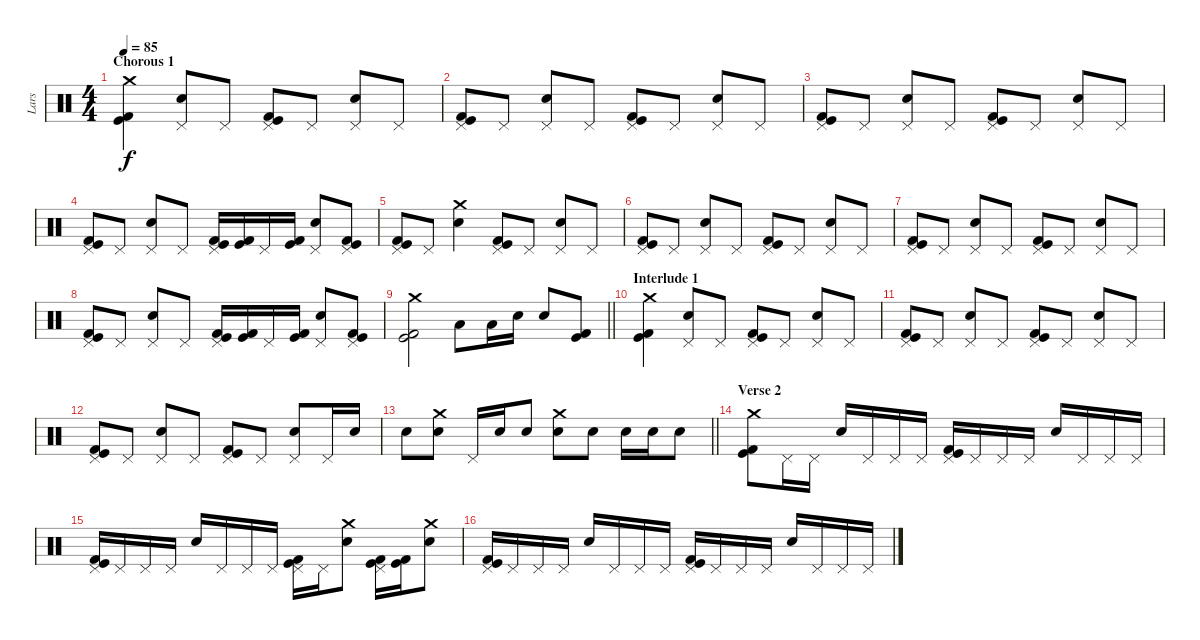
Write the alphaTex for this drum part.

\track ("Lars" "Lars") {instrument percussion}
\staff {score}
\articulation defaults
\ts (4 4)
\section ("" "Chorous 1")
\tempo 85
\clef neutral
\ks c
("Crash medium (hit)" "Kick (hit)" "Kick (hit) 2").4{dy f} ("Pedal Hi-Hat (hit)" "Electric Snare (hit)").8 "Pedal Hi-Hat (hit)".8 ("Pedal Hi-Hat (hit)" "Kick (hit)" "Kick (hit) 2").8 "Pedal Hi-Hat (hit)".8 ("Pedal Hi-Hat (hit)" "Electric Snare (hit)").8 "Pedal Hi-Hat (hit)".8 |
("Pedal Hi-Hat (hit)" "Kick (hit)" "Kick (hit) 2").8 "Pedal Hi-Hat (hit)".8 ("Pedal Hi-Hat (hit)" "Electric Snare (hit)").8 "Pedal Hi-Hat (hit)".8 ("Pedal Hi-Hat (hit)" "Kick (hit)" "Kick (hit) 2").8 "Pedal Hi-Hat (hit)".8 ("Pedal Hi-Hat (hit)" "Electric Snare (hit)").8 "Pedal Hi-Hat (hit)".8 |
("Pedal Hi-Hat (hit)" "Kick (hit)" "Kick (hit) 2").8 "Pedal Hi-Hat (hit)".8 ("Pedal Hi-Hat (hit)" "Electric Snare (hit)").8 "Pedal Hi-Hat (hit)".8 ("Pedal Hi-Hat (hit)" "Kick (hit)" "Kick (hit) 2").8 "Pedal Hi-Hat (hit)".8 ("Pedal Hi-Hat (hit)" "Electric Snare (hit)").8 "Pedal Hi-Hat (hit)".8 |
("Pedal Hi-Hat (hit)" "Kick (hit)" "Kick (hit) 2").8 "Pedal Hi-Hat (hit)".8 ("Pedal Hi-Hat (hit)" "Electric Snare (hit)").8 "Pedal Hi-Hat (hit)".8 ("Pedal Hi-Hat (hit)" "Kick (hit)" "Kick (hit) 2").16 ("Kick (hit)" "Kick (hit) 2").16 "Pedal Hi-Hat (hit)".16 ("Kick (hit)" "Kick (hit) 2").16 ("Pedal Hi-Hat (hit)" "Electric Snare (hit)").8 ("Pedal Hi-Hat (hit)" "Kick (hit)" "Kick (hit) 2").8 |
("Pedal Hi-Hat (hit)" "Kick (hit)" "Kick (hit) 2").8 "Pedal Hi-Hat (hit)".8 ("Crash medium (hit)" "Electric Snare (hit)").4 ("Pedal Hi-Hat (hit)" "Kick (hit)" "Kick (hit) 2").8 "Pedal Hi-Hat (hit)".8 ("Pedal Hi-Hat (hit)" "Electric Snare (hit)").8 "Pedal Hi-Hat (hit)".8 |
("Pedal Hi-Hat (hit)" "Kick (hit)" "Kick (hit) 2").8 "Pedal Hi-Hat (hit)".8 ("Pedal Hi-Hat (hit)" "Electric Snare (hit)").8 "Pedal Hi-Hat (hit)".8 ("Pedal Hi-Hat (hit)" "Kick (hit)" "Kick (hit) 2").8 "Pedal Hi-Hat (hit)".8 ("Pedal Hi-Hat (hit)" "Electric Snare (hit)").8 "Pedal Hi-Hat (hit)".8 |
("Pedal Hi-Hat (hit)" "Kick (hit)" "Kick (hit) 2").8 "Pedal Hi-Hat (hit)".8 ("Pedal Hi-Hat (hit)" "Electric Snare (hit)").8 "Pedal Hi-Hat (hit)".8 ("Pedal Hi-Hat (hit)" "Kick (hit)" "Kick (hit) 2").8 "Pedal Hi-Hat (hit)".8 ("Pedal Hi-Hat (hit)" "Electric Snare (hit)").8 "Pedal Hi-Hat (hit)".8 |
("Pedal Hi-Hat (hit)" "Kick (hit)" "Kick (hit) 2").8 "Pedal Hi-Hat (hit)".8 ("Pedal Hi-Hat (hit)" "Electric Snare (hit)").8 "Pedal Hi-Hat (hit)".8 ("Pedal Hi-Hat (hit)" "Kick (hit)" "Kick (hit) 2").16 ("Kick (hit)" "Kick (hit) 2").16 "Pedal Hi-Hat (hit)".16 ("Kick (hit)" "Kick (hit) 2").16 ("Pedal Hi-Hat (hit)" "Electric Snare (hit)").8 ("Pedal Hi-Hat (hit)" "Kick (hit)" "Kick (hit) 2").8 |
\barLineRight lightlight
("Crash medium (hit)" "Kick (hit)" "Kick (hit) 2").2 "Low Tom (hit)".8 "Low Tom (hit)".16 "Electric Snare (hit)".16 "Electric Snare (hit)".8 ("Kick (hit)" "Kick (hit) 2").8 |
\section ("" "Interlude 1")
("Crash medium (hit)" "Kick (hit)" "Kick (hit) 2").4 ("Pedal Hi-Hat (hit)" "Electric Snare (hit)").8 "Pedal Hi-Hat (hit)".8 ("Pedal Hi-Hat (hit)" "Kick (hit)" "Kick (hit) 2").8 "Pedal Hi-Hat (hit)".8 ("Pedal Hi-Hat (hit)" "Electric Snare (hit)").8 "Pedal Hi-Hat (hit)".8 |
("Pedal Hi-Hat (hit)" "Kick (hit)" "Kick (hit) 2").8 "Pedal Hi-Hat (hit)".8 ("Pedal Hi-Hat (hit)" "Electric Snare (hit)").8 "Pedal Hi-Hat (hit)".8 ("Pedal Hi-Hat (hit)" "Kick (hit)" "Kick (hit) 2").8 "Pedal Hi-Hat (hit)".8 ("Pedal Hi-Hat (hit)" "Electric Snare (hit)").8 "Pedal Hi-Hat (hit)".8 |
("Pedal Hi-Hat (hit)" "Kick (hit)" "Kick (hit) 2").8 "Pedal Hi-Hat (hit)".8 ("Pedal Hi-Hat (hit)" "Electric Snare (hit)").8 "Pedal Hi-Hat (hit)".8 ("Pedal Hi-Hat (hit)" "Kick (hit)" "Kick (hit) 2").8 "Pedal Hi-Hat (hit)".8 ("Pedal Hi-Hat (hit)" "Electric Snare (hit)").8 "Pedal Hi-Hat (hit)".16 "Electric Snare (hit)".16 |
\barLineRight lightlight "Electric Snare (hit)".8
("Crash medium (hit)" "Electric Snare (hit)").8 "Pedal Hi-Hat (hit)".16 "Electric Snare (hit)".16 "Electric Snare (hit)".8 ("Crash medium (hit)" "Electric Snare (hit)").8 "Electric Snare (hit)".8 "Electric Snare (hit)".16 "Electric Snare (hit)".16 "Electric Snare (hit)".8 |
\section ("" "Verse 2")
("Crash medium (hit)" "Kick (hit)" "Kick (hit) 2").8 "Pedal Hi-Hat (hit)".16 "Pedal Hi-Hat (hit)".16 "Electric Snare (hit)".16 "Pedal Hi-Hat (hit)".16 "Pedal Hi-Hat (hit)".16 "Pedal Hi-Hat (hit)".16 ("Pedal Hi-Hat (hit)" "Kick (hit)" "Kick (hit) 2").16 "Pedal Hi-Hat (hit)".16 "Pedal Hi-Hat (hit)".16 "Pedal Hi-Hat (hit)".16 "Electric Snare (hit)".16 "Pedal Hi-Hat (hit)".16 "Pedal Hi-Hat (hit)".16 "Pedal Hi-Hat (hit)".16 |
("Pedal Hi-Hat (hit)" "Kick (hit)" "Kick (hit) 2").16 "Pedal Hi-Hat (hit)".16 "Pedal Hi-Hat (hit)".16 "Pedal Hi-Hat (hit)".16 "Electric Snare (hit)".16 "Pedal Hi-Hat (hit)".16 "Pedal Hi-Hat (hit)".16 "Pedal Hi-Hat (hit)".16 ("Pedal Hi-Hat (hit)" "Kick (hit)" "Kick (hit) 2").16 "Pedal Hi-Hat (hit)".16 ("Crash medium (hit)" "Electric Snare (hit)").8 ("Pedal Hi-Hat (hit)" "Kick (hit)" "Kick (hit) 2").16 ("Kick (hit)" "Kick (hit) 2").16 ("Crash medium (hit)" "Electric Snare (hit)").8 |
("Pedal Hi-Hat (hit)" "Kick (hit)" "Kick (hit) 2").16 "Pedal Hi-Hat (hit)".16 "Pedal Hi-Hat (hit)".16 "Pedal Hi-Hat (hit)".16 "Electric Snare (hit)".16 "Pedal Hi-Hat (hit)".16 "Pedal Hi-Hat (hit)".16 "Pedal Hi-Hat (hit)".16 ("Pedal Hi-Hat (hit)" "Kick (hit)" "Kick (hit) 2").16 "Pedal Hi-Hat (hit)".16 "Pedal Hi-Hat (hit)".16 "Pedal Hi-Hat (hit)".16 "Electric Snare (hit)".16 "Pedal Hi-Hat (hit)".16 "Pedal Hi-Hat (hit)".16 "Pedal Hi-Hat (hit)".16
